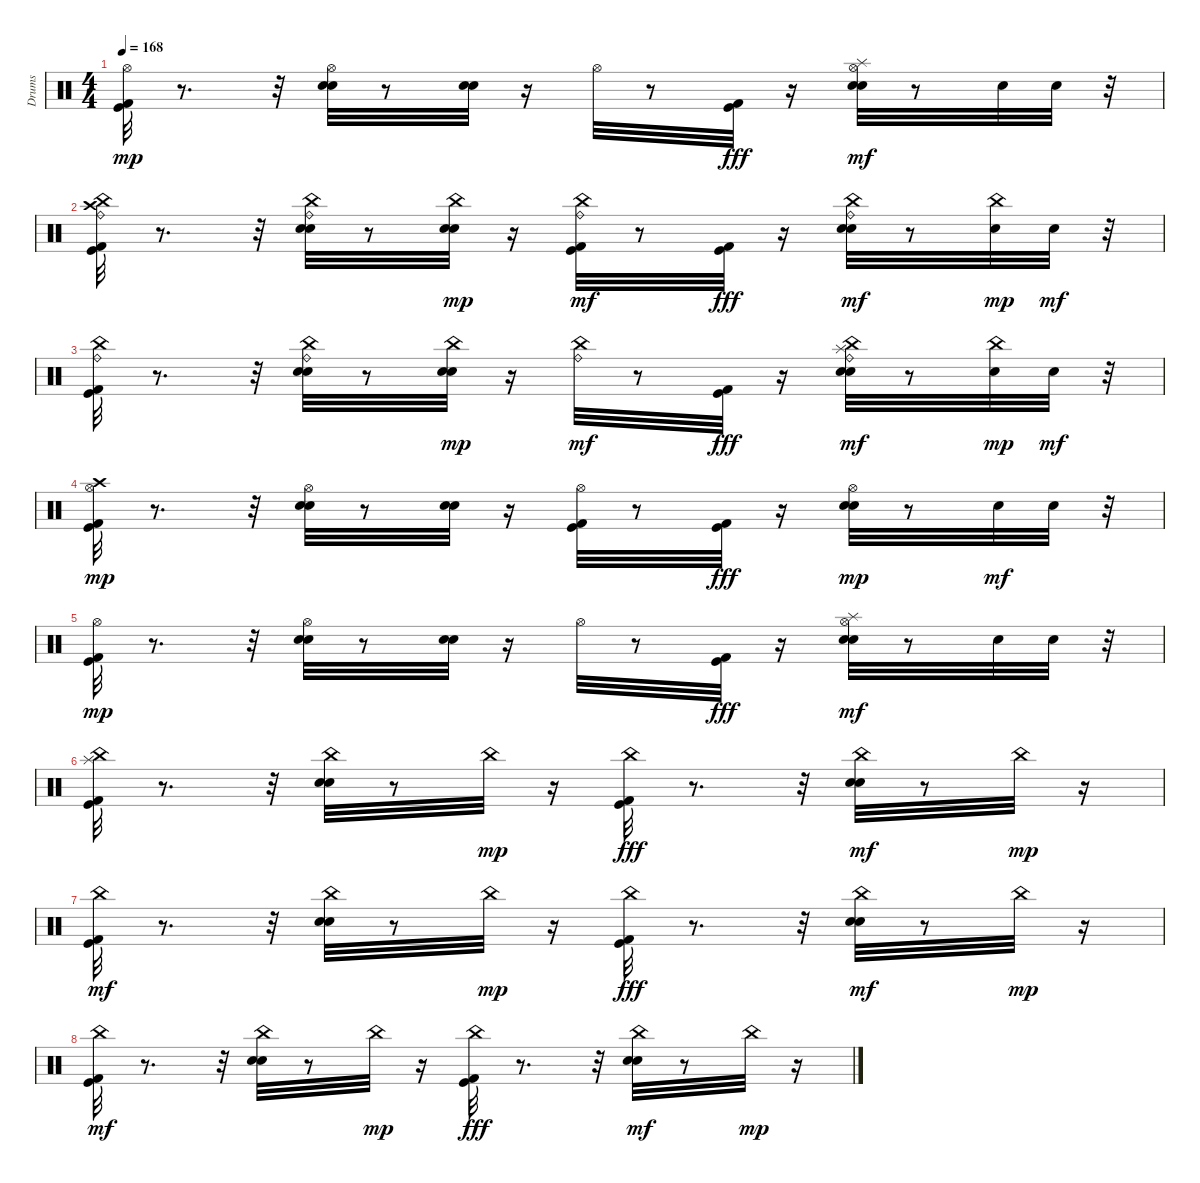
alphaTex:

\track ("Drums" "Drums") {instrument percussion}
\staff {score}
\articulation defaults
\ts (4 4)
\tempo 168
\clef neutral
\ks c
("Kick (hit) 2" "Kick (hit)" "Hi-Hat (open)").32{dy mp} r.8{d} r.32 ("Snare (hit) 2" "Hand Clap (hit)" "Hi-Hat (open)").32 r.8 ("Snare (hit) 2" "Hand Clap (hit)").32 r.16 "Hi-Hat (open)".32 r.8 ("Kick (hit) 2" "Kick (hit)").32{dy fff} r.16 ("Snare (hit) 2" "Hand Clap (hit)" "Hi-Hat (open)" "Splash (hit)").32{dy mf} r.8 "Snare (hit) 2".32 "Hand Clap (hit)".32 r.32 |
("Kick (hit) 2" "Kick (hit)" "China (hit)" "Ride (bell)" "Crash high (hit)").32 r.8{d} r.32 ("Snare (hit) 2" "Hand Clap (hit)" "China (hit)" "Ride (bell)").32 r.8 ("Snare (hit) 2" "Hand Clap (hit)" "China (hit)").32{dy mp} r.16 ("Kick (hit) 2" "Kick (hit)" "China (hit)" "Ride (bell)").32{dy mf} r.8 ("Kick (hit) 2" "Kick (hit)").32{dy fff} r.16 ("Snare (hit) 2" "Hand Clap (hit)" "China (hit)" "Ride (bell)").32{dy mf} r.8 ("Snare (hit) 2" "China (hit)").32{dy mp} "Hand Clap (hit)".32{dy mf} r.32 |
("Kick (hit) 2" "Kick (hit)" "China (hit)" "Ride (bell)").32 r.8{d} r.32 ("Snare (hit) 2" "Hand Clap (hit)" "China (hit)" "Ride (bell)").32 r.8 ("Snare (hit) 2" "Hand Clap (hit)" "China (hit)").32{dy mp} r.16 ("China (hit)" "Ride (bell)").32{dy mf} r.8 ("Kick (hit) 2" "Kick (hit)").32{dy fff} r.16 ("Snare (hit) 2" "Hand Clap (hit)" "China (hit)" "Ride (bell)" "Splash (hit)").32{dy mf} r.8 ("Snare (hit) 2" "China (hit)").32{dy mp} "Hand Clap (hit)".32{dy mf} r.32 |
("Kick (hit) 2" "Kick (hit)" "Crash high (hit)" "Hi-Hat (open)").32{dy mp} r.8{d} r.32 ("Snare (hit) 2" "Hand Clap (hit)" "Hi-Hat (open)").32 r.8 ("Snare (hit) 2" "Hand Clap (hit)").32 r.16 ("Kick (hit) 2" "Kick (hit)" "Hi-Hat (open)").32 r.8 ("Kick (hit) 2" "Kick (hit)").32{dy fff} r.16 ("Snare (hit) 2" "Hand Clap (hit)" "Hi-Hat (open)").32{dy mp} r.8 "Snare (hit) 2".32{dy mf} "Hand Clap (hit)".32 r.32 |
("Kick (hit) 2" "Kick (hit)" "Hi-Hat (open)").32{dy mp} r.8{d} r.32 ("Snare (hit) 2" "Hand Clap (hit)" "Hi-Hat (open)").32 r.8 ("Snare (hit) 2" "Hand Clap (hit)").32 r.16 "Hi-Hat (open)".32 r.8 ("Kick (hit) 2" "Kick (hit)").32{dy fff} r.16 ("Snare (hit) 2" "Hand Clap (hit)" "Hi-Hat (open)" "Splash (hit)").32{dy mf} r.8 "Snare (hit) 2".32 "Hand Clap (hit)".32 r.32 |
("Kick (hit) 2" "Kick (hit)" "Splash (hit)" "China (hit)").32 r.8{d} r.32 ("Snare (hit) 2" "China (hit)" "Hand Clap (hit)").32 r.8 "China (hit)".32{dy mp} r.16 ("China (hit)" "Kick (hit) 2" "Kick (hit)").32{dy fff} r.8{d} r.32 ("Snare (hit) 2" "China (hit)" "Hand Clap (hit)").32{dy mf} r.8 "China (hit)".32{dy mp} r.16 |
("Kick (hit) 2" "Kick (hit)" "China (hit)").32{dy mf} r.8{d} r.32 ("Snare (hit) 2" "China (hit)" "Hand Clap (hit)").32 r.8 "China (hit)".32{dy mp} r.16 ("China (hit)" "Kick (hit) 2" "Kick (hit)").32{dy fff} r.8{d} r.32 ("Snare (hit) 2" "China (hit)" "Hand Clap (hit)").32{dy mf} r.8 "China (hit)".32{dy mp} r.16 |
("Kick (hit) 2" "Kick (hit)" "China (hit)").32{dy mf} r.8{d} r.32 ("Snare (hit) 2" "China (hit)" "Hand Clap (hit)").32 r.8 "China (hit)".32{dy mp} r.16 ("China (hit)" "Kick (hit) 2" "Kick (hit)").32{dy fff} r.8{d} r.32 ("Snare (hit) 2" "China (hit)" "Hand Clap (hit)").32{dy mf} r.8 "China (hit)".32{dy mp} r.16
